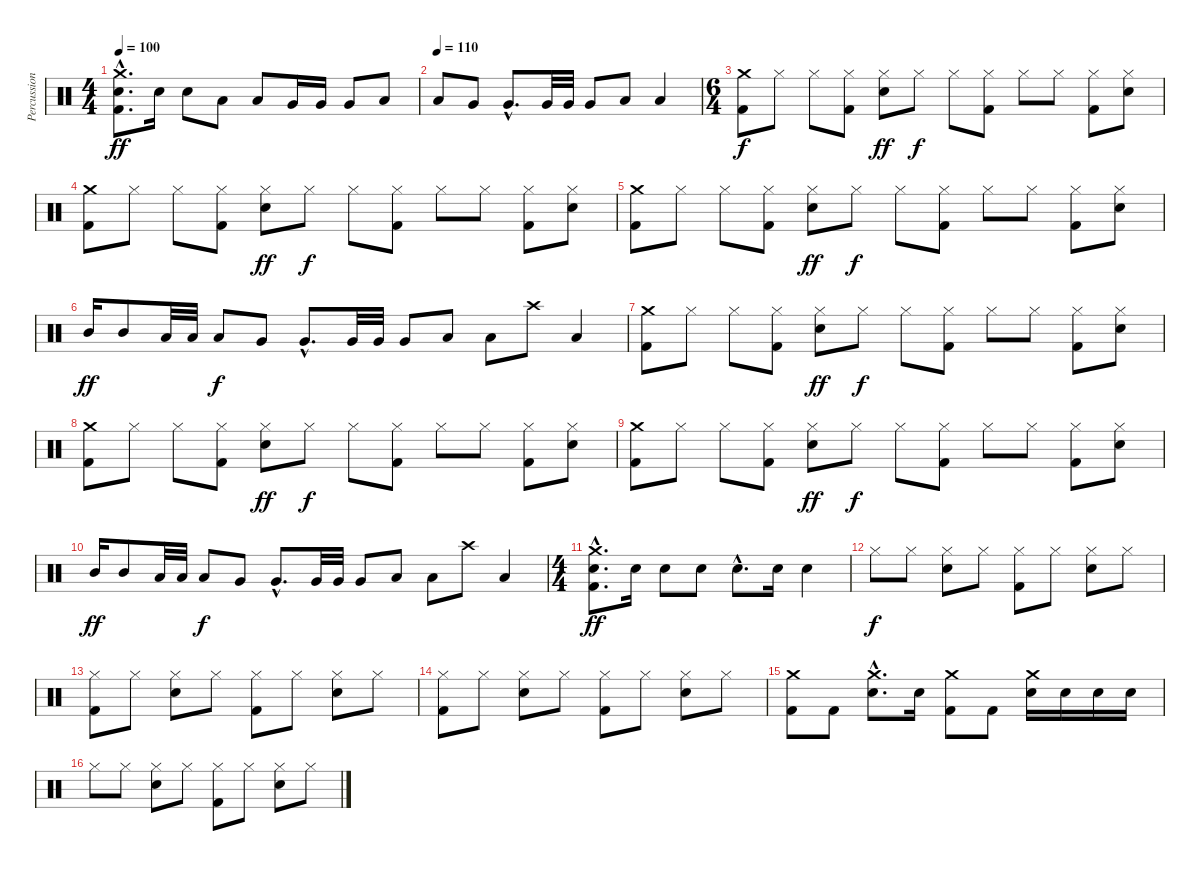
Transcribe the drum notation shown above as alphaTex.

\track ("Percussions" "Percussion") {instrument percussion}
\staff {score}
\articulation defaults
\ts (4 4)
\tempo 100
\clef neutral
\ks aminor
("Crash medium (hit)"{hac} "Snare (hit) 2"{hac} "Kick (hit) 2"{hac}).8{d dy ff} "Snare (hit) 2".16 "Snare (hit) 2".8 "Low Tom (hit)".8 "Low Tom (hit)".8 "Very Low Tom (hit)".16 "Very Low Tom (hit)".16 "Very Low Tom (hit)".8 "Low Floor Tom (hit)".8 |
\tempo (110)
"Low Tom (hit)".8 "Very Low Tom (hit)".8 "Very Low Tom (hit)"{hac}.8{d} "Very Low Tom (hit)".32 "Very Low Tom (hit)".32 "Very Low Tom (hit)".8 "Low Floor Tom (hit)".8 "Low Floor Tom (hit)".4 |
\ts (6 4)
("Crash medium (hit)" "Kick (hit) 2").8{dy f} "Hi-Hat (closed)".8 "Hi-Hat (closed)".8 ("Hi-Hat (closed)" "Kick (hit) 2").8 ("Hi-Hat (closed)" "Snare (hit) 2").8{dy ff} "Hi-Hat (closed)".8{dy f} "Hi-Hat (closed)".8 ("Hi-Hat (closed)" "Kick (hit) 2").8 "Hi-Hat (closed)".8 "Hi-Hat (closed)".8 ("Hi-Hat (closed)" "Kick (hit) 2").8 ("Hi-Hat (closed)" "Snare (hit) 2").8 |
("Crash medium (hit)" "Kick (hit) 2").8 "Hi-Hat (closed)".8 "Hi-Hat (closed)".8 ("Hi-Hat (closed)" "Kick (hit) 2").8 ("Hi-Hat (closed)" "Snare (hit) 2").8{dy ff} "Hi-Hat (closed)".8{dy f} "Hi-Hat (closed)".8 ("Hi-Hat (closed)" "Kick (hit) 2").8 "Hi-Hat (closed)".8 "Hi-Hat (closed)".8 ("Hi-Hat (closed)" "Kick (hit) 2").8 ("Hi-Hat (closed)" "Snare (hit) 2").8 |
("Crash medium (hit)" "Kick (hit) 2").8 "Hi-Hat (closed)".8 "Hi-Hat (closed)".8 ("Hi-Hat (closed)" "Kick (hit) 2").8 ("Hi-Hat (closed)" "Snare (hit) 2").8{dy ff} "Hi-Hat (closed)".8{dy f} "Hi-Hat (closed)".8 ("Hi-Hat (closed)" "Kick (hit) 2").8 "Hi-Hat (closed)".8 "Hi-Hat (closed)".8 ("Hi-Hat (closed)" "Kick (hit) 2").8 ("Hi-Hat (closed)" "Snare (hit) 2").8 |
"Mid Tom (hit)".16{dy ff} "Mid Tom (hit)".8 "Low Tom (hit)".32 "Low Tom (hit)".32 "Low Tom (hit)".8{dy f} "Very Low Tom (hit)".8 "Very Low Tom (hit)"{hac}.8{d} "Very Low Tom (hit)".32 "Very Low Tom (hit)".32 "Very Low Tom (hit)".8 "Low Floor Tom (hit)".8 "Low Tom (hit)".8 "Crash high (hit)".8 "Low Tom (hit)".4 |
("Crash medium (hit)" "Kick (hit) 2").8 "Hi-Hat (closed)".8 "Hi-Hat (closed)".8 ("Hi-Hat (closed)" "Kick (hit) 2").8 ("Hi-Hat (closed)" "Snare (hit) 2").8{dy ff} "Hi-Hat (closed)".8{dy f} "Hi-Hat (closed)".8 ("Hi-Hat (closed)" "Kick (hit) 2").8 "Hi-Hat (closed)".8 "Hi-Hat (closed)".8 ("Hi-Hat (closed)" "Kick (hit) 2").8 ("Hi-Hat (closed)" "Snare (hit) 2").8 |
("Crash medium (hit)" "Kick (hit) 2").8 "Hi-Hat (closed)".8 "Hi-Hat (closed)".8 ("Hi-Hat (closed)" "Kick (hit) 2").8 ("Hi-Hat (closed)" "Snare (hit) 2").8{dy ff} "Hi-Hat (closed)".8{dy f} "Hi-Hat (closed)".8 ("Hi-Hat (closed)" "Kick (hit) 2").8 "Hi-Hat (closed)".8 "Hi-Hat (closed)".8 ("Hi-Hat (closed)" "Kick (hit) 2").8 ("Hi-Hat (closed)" "Snare (hit) 2").8 |
("Crash medium (hit)" "Kick (hit) 2").8 "Hi-Hat (closed)".8 "Hi-Hat (closed)".8 ("Hi-Hat (closed)" "Kick (hit) 2").8 ("Hi-Hat (closed)" "Snare (hit) 2").8{dy ff} "Hi-Hat (closed)".8{dy f} "Hi-Hat (closed)".8 ("Hi-Hat (closed)" "Kick (hit) 2").8 "Hi-Hat (closed)".8 "Hi-Hat (closed)".8 ("Hi-Hat (closed)" "Kick (hit) 2").8 ("Hi-Hat (closed)" "Snare (hit) 2").8 |
"Mid Tom (hit)".16{dy ff} "Mid Tom (hit)".8 "Low Tom (hit)".32 "Low Tom (hit)".32 "Low Tom (hit)".8{dy f} "Very Low Tom (hit)".8 "Very Low Tom (hit)"{hac}.8{d} "Very Low Tom (hit)".32 "Very Low Tom (hit)".32 "Very Low Tom (hit)".8 "Low Floor Tom (hit)".8 "Low Tom (hit)".8 "Crash high (hit)".8 "Low Tom (hit)".4 |
\ts (4 4)
("Crash medium (hit)"{hac} "Snare (hit) 2"{hac} "Kick (hit) 2"{hac}).8{d dy ff} "Snare (hit) 2".16 "Snare (hit) 2".8 "Snare (hit) 2".8 "Snare (hit) 2"{hac}.8{d} "Snare (hit) 2".16 "Snare (hit) 2".4 |
\ks c "Hi-Hat (closed)".8{dy f} "Hi-Hat (closed)".8
("Snare (hit) 2" "Hi-Hat (closed)").8 "Hi-Hat (closed)".8 ("Kick (hit) 2" "Hi-Hat (closed)").8 "Hi-Hat (closed)".8 ("Snare (hit) 2" "Hi-Hat (closed)").8 "Hi-Hat (closed)".8 |
("Kick (hit) 2" "Hi-Hat (closed)").8 "Hi-Hat (closed)".8 ("Snare (hit) 2" "Hi-Hat (closed)").8 "Hi-Hat (closed)".8 ("Kick (hit) 2" "Hi-Hat (closed)").8 "Hi-Hat (closed)".8 ("Snare (hit) 2" "Hi-Hat (closed)").8 "Hi-Hat (closed)".8 |
("Kick (hit) 2" "Hi-Hat (closed)").8 "Hi-Hat (closed)".8 ("Snare (hit) 2" "Hi-Hat (closed)").8 "Hi-Hat (closed)".8 ("Kick (hit) 2" "Hi-Hat (closed)").8 "Hi-Hat (closed)".8 ("Snare (hit) 2" "Hi-Hat (closed)").8 "Hi-Hat (closed)".8 |
("Crash medium (hit)" "Kick (hit) 2").8 "Kick (hit) 2".8 ("Crash medium (hit)"{hac} "Snare (hit) 2"{hac}).8{d} "Snare (hit) 2".16 ("Crash medium (hit)" "Kick (hit) 2").8 "Kick (hit) 2".8 ("Crash medium (hit)" "Snare (hit) 2").16 "Snare (hit) 2".16 "Snare (hit) 2".16 "Snare (hit) 2".16 |
"Hi-Hat (closed)".8 "Hi-Hat (closed)".8 ("Snare (hit) 2" "Hi-Hat (closed)").8 "Hi-Hat (closed)".8 ("Kick (hit) 2" "Hi-Hat (closed)").8 "Hi-Hat (closed)".8 ("Snare (hit) 2" "Hi-Hat (closed)").8 "Hi-Hat (closed)".8
